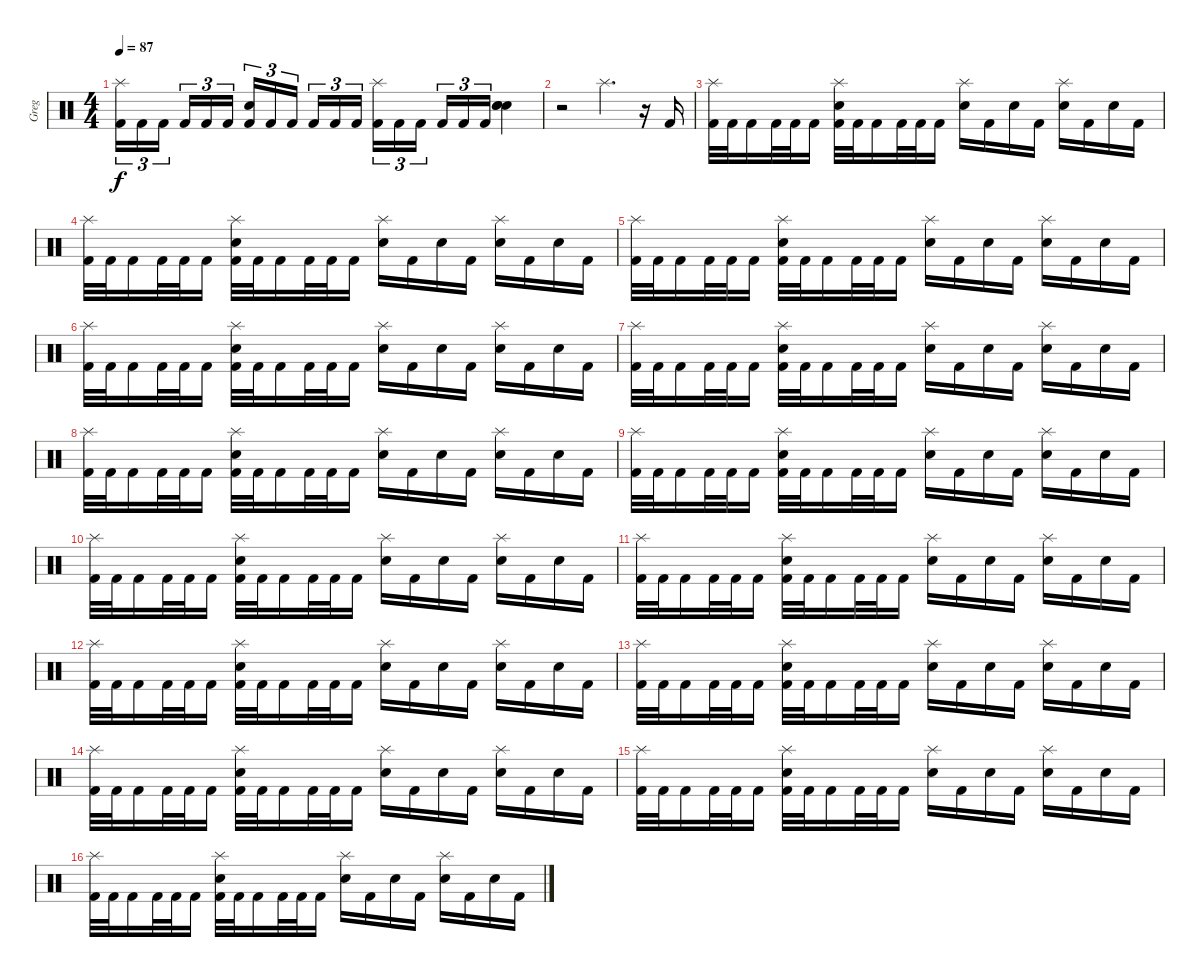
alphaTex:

\track ("Greg" "Greg") {instrument percussion}
\staff {score}
\articulation defaults
\ts (4 4)
\tempo 87
\clef neutral
\ks c
("Splash (hit)" "Kick (hit) 2").16{tu (3 2) dy f} "Kick (hit) 2".16{tu (3 2)} "Kick (hit) 2".16{tu (3 2) beam splitsecondary} "Kick (hit) 2".16{tu (3 2)} "Kick (hit) 2".16{tu (3 2)} "Kick (hit) 2".16{tu (3 2)} ("Snare (hit) 2" "Kick (hit) 2").16{tu (3 2)} "Kick (hit) 2".16{tu (3 2)} "Kick (hit) 2".16{tu (3 2) beam splitsecondary} "Kick (hit) 2".16{tu (3 2)} "Kick (hit) 2".16{tu (3 2)} "Kick (hit) 2".16{tu (3 2)} ("Splash (hit)" "Kick (hit) 2").16{tu (3 2)} "Kick (hit) 2".16{tu (3 2)} "Kick (hit) 2".16{tu (3 2) beam splitsecondary} "Kick (hit) 2".16{tu (3 2)} "Kick (hit) 2".16{tu (3 2)} "Kick (hit) 2".16{tu (3 2)} ("Snare (hit) 2" "Electric Snare (hit)" "Snare (hit) 2").4 |
r.2 "Splash (hit)".4{d} r.16 "Kick (hit) 2".16 |
("Splash (hit)" "Kick (hit) 2").32 "Kick (hit) 2".32 "Kick (hit) 2".16 "Kick (hit) 2".32 "Kick (hit) 2".32 "Kick (hit) 2".16 ("Splash (hit)" "Snare (hit) 2" "Kick (hit) 2").32 "Kick (hit) 2".32 "Kick (hit) 2".16 "Kick (hit) 2".32 "Kick (hit) 2".32 "Kick (hit) 2".16 ("Splash (hit)" "Snare (hit) 2").16 "Kick (hit) 2".16 "Snare (hit) 2".16 "Kick (hit) 2".16 ("Splash (hit)" "Snare (hit) 2").16 "Kick (hit) 2".16 "Snare (hit) 2".16 "Kick (hit) 2".16 |
("Splash (hit)" "Kick (hit) 2").32 "Kick (hit) 2".32 "Kick (hit) 2".16 "Kick (hit) 2".32 "Kick (hit) 2".32 "Kick (hit) 2".16 ("Splash (hit)" "Snare (hit) 2" "Kick (hit) 2").32 "Kick (hit) 2".32 "Kick (hit) 2".16 "Kick (hit) 2".32 "Kick (hit) 2".32 "Kick (hit) 2".16 ("Splash (hit)" "Snare (hit) 2").16 "Kick (hit) 2".16 "Snare (hit) 2".16 "Kick (hit) 2".16 ("Splash (hit)" "Snare (hit) 2").16 "Kick (hit) 2".16 "Snare (hit) 2".16 "Kick (hit) 2".16 |
("Splash (hit)" "Kick (hit) 2").32 "Kick (hit) 2".32 "Kick (hit) 2".16 "Kick (hit) 2".32 "Kick (hit) 2".32 "Kick (hit) 2".16 ("Splash (hit)" "Snare (hit) 2" "Kick (hit) 2").32 "Kick (hit) 2".32 "Kick (hit) 2".16 "Kick (hit) 2".32 "Kick (hit) 2".32 "Kick (hit) 2".16 ("Splash (hit)" "Snare (hit) 2").16 "Kick (hit) 2".16 "Snare (hit) 2".16 "Kick (hit) 2".16 ("Splash (hit)" "Snare (hit) 2").16 "Kick (hit) 2".16 "Snare (hit) 2".16 "Kick (hit) 2".16 |
("Splash (hit)" "Kick (hit) 2").32 "Kick (hit) 2".32 "Kick (hit) 2".16 "Kick (hit) 2".32 "Kick (hit) 2".32 "Kick (hit) 2".16 ("Splash (hit)" "Snare (hit) 2" "Kick (hit) 2").32 "Kick (hit) 2".32 "Kick (hit) 2".16 "Kick (hit) 2".32 "Kick (hit) 2".32 "Kick (hit) 2".16 ("Splash (hit)" "Snare (hit) 2").16 "Kick (hit) 2".16 "Snare (hit) 2".16 "Kick (hit) 2".16 ("Splash (hit)" "Snare (hit) 2").16 "Kick (hit) 2".16 "Snare (hit) 2".16 "Kick (hit) 2".16 |
("Splash (hit)" "Kick (hit) 2").32 "Kick (hit) 2".32 "Kick (hit) 2".16 "Kick (hit) 2".32 "Kick (hit) 2".32 "Kick (hit) 2".16 ("Splash (hit)" "Snare (hit) 2" "Kick (hit) 2").32 "Kick (hit) 2".32 "Kick (hit) 2".16 "Kick (hit) 2".32 "Kick (hit) 2".32 "Kick (hit) 2".16 ("Splash (hit)" "Snare (hit) 2").16 "Kick (hit) 2".16 "Snare (hit) 2".16 "Kick (hit) 2".16 ("Splash (hit)" "Snare (hit) 2").16 "Kick (hit) 2".16 "Snare (hit) 2".16 "Kick (hit) 2".16 |
("Splash (hit)" "Kick (hit) 2").32 "Kick (hit) 2".32 "Kick (hit) 2".16 "Kick (hit) 2".32 "Kick (hit) 2".32 "Kick (hit) 2".16 ("Splash (hit)" "Snare (hit) 2" "Kick (hit) 2").32 "Kick (hit) 2".32 "Kick (hit) 2".16 "Kick (hit) 2".32 "Kick (hit) 2".32 "Kick (hit) 2".16 ("Splash (hit)" "Snare (hit) 2").16 "Kick (hit) 2".16 "Snare (hit) 2".16 "Kick (hit) 2".16 ("Splash (hit)" "Snare (hit) 2").16 "Kick (hit) 2".16 "Snare (hit) 2".16 "Kick (hit) 2".16 |
("Splash (hit)" "Kick (hit) 2").32 "Kick (hit) 2".32 "Kick (hit) 2".16 "Kick (hit) 2".32 "Kick (hit) 2".32 "Kick (hit) 2".16 ("Splash (hit)" "Snare (hit) 2" "Kick (hit) 2").32 "Kick (hit) 2".32 "Kick (hit) 2".16 "Kick (hit) 2".32 "Kick (hit) 2".32 "Kick (hit) 2".16 ("Splash (hit)" "Snare (hit) 2").16 "Kick (hit) 2".16 "Snare (hit) 2".16 "Kick (hit) 2".16 ("Splash (hit)" "Snare (hit) 2").16 "Kick (hit) 2".16 "Snare (hit) 2".16 "Kick (hit) 2".16 |
("Splash (hit)" "Kick (hit) 2").32 "Kick (hit) 2".32 "Kick (hit) 2".16 "Kick (hit) 2".32 "Kick (hit) 2".32 "Kick (hit) 2".16 ("Splash (hit)" "Snare (hit) 2" "Kick (hit) 2").32 "Kick (hit) 2".32 "Kick (hit) 2".16 "Kick (hit) 2".32 "Kick (hit) 2".32 "Kick (hit) 2".16 ("Splash (hit)" "Snare (hit) 2").16 "Kick (hit) 2".16 "Snare (hit) 2".16 "Kick (hit) 2".16 ("Splash (hit)" "Snare (hit) 2").16 "Kick (hit) 2".16 "Snare (hit) 2".16 "Kick (hit) 2".16 |
("Splash (hit)" "Kick (hit) 2").32 "Kick (hit) 2".32 "Kick (hit) 2".16 "Kick (hit) 2".32 "Kick (hit) 2".32 "Kick (hit) 2".16 ("Splash (hit)" "Snare (hit) 2" "Kick (hit) 2").32 "Kick (hit) 2".32 "Kick (hit) 2".16 "Kick (hit) 2".32 "Kick (hit) 2".32 "Kick (hit) 2".16 ("Splash (hit)" "Snare (hit) 2").16 "Kick (hit) 2".16 "Snare (hit) 2".16 "Kick (hit) 2".16 ("Splash (hit)" "Snare (hit) 2").16 "Kick (hit) 2".16 "Snare (hit) 2".16 "Kick (hit) 2".16 |
("Splash (hit)" "Kick (hit) 2").32 "Kick (hit) 2".32 "Kick (hit) 2".16 "Kick (hit) 2".32 "Kick (hit) 2".32 "Kick (hit) 2".16 ("Splash (hit)" "Snare (hit) 2" "Kick (hit) 2").32 "Kick (hit) 2".32 "Kick (hit) 2".16 "Kick (hit) 2".32 "Kick (hit) 2".32 "Kick (hit) 2".16 ("Splash (hit)" "Snare (hit) 2").16 "Kick (hit) 2".16 "Snare (hit) 2".16 "Kick (hit) 2".16 ("Splash (hit)" "Snare (hit) 2").16 "Kick (hit) 2".16 "Snare (hit) 2".16 "Kick (hit) 2".16 |
("Splash (hit)" "Kick (hit) 2").32 "Kick (hit) 2".32 "Kick (hit) 2".16 "Kick (hit) 2".32 "Kick (hit) 2".32 "Kick (hit) 2".16 ("Splash (hit)" "Snare (hit) 2" "Kick (hit) 2").32 "Kick (hit) 2".32 "Kick (hit) 2".16 "Kick (hit) 2".32 "Kick (hit) 2".32 "Kick (hit) 2".16 ("Splash (hit)" "Snare (hit) 2").16 "Kick (hit) 2".16 "Snare (hit) 2".16 "Kick (hit) 2".16 ("Splash (hit)" "Snare (hit) 2").16 "Kick (hit) 2".16 "Snare (hit) 2".16 "Kick (hit) 2".16 |
("Splash (hit)" "Kick (hit) 2").32 "Kick (hit) 2".32 "Kick (hit) 2".16 "Kick (hit) 2".32 "Kick (hit) 2".32 "Kick (hit) 2".16 ("Splash (hit)" "Snare (hit) 2" "Kick (hit) 2").32 "Kick (hit) 2".32 "Kick (hit) 2".16 "Kick (hit) 2".32 "Kick (hit) 2".32 "Kick (hit) 2".16 ("Splash (hit)" "Snare (hit) 2").16 "Kick (hit) 2".16 "Snare (hit) 2".16 "Kick (hit) 2".16 ("Splash (hit)" "Snare (hit) 2").16 "Kick (hit) 2".16 "Snare (hit) 2".16 "Kick (hit) 2".16 |
("Splash (hit)" "Kick (hit) 2").32 "Kick (hit) 2".32 "Kick (hit) 2".16 "Kick (hit) 2".32 "Kick (hit) 2".32 "Kick (hit) 2".16 ("Splash (hit)" "Snare (hit) 2" "Kick (hit) 2").32 "Kick (hit) 2".32 "Kick (hit) 2".16 "Kick (hit) 2".32 "Kick (hit) 2".32 "Kick (hit) 2".16 ("Splash (hit)" "Snare (hit) 2").16 "Kick (hit) 2".16 "Snare (hit) 2".16 "Kick (hit) 2".16 ("Splash (hit)" "Snare (hit) 2").16 "Kick (hit) 2".16 "Snare (hit) 2".16 "Kick (hit) 2".16 |
("Splash (hit)" "Kick (hit) 2").32 "Kick (hit) 2".32 "Kick (hit) 2".16 "Kick (hit) 2".32 "Kick (hit) 2".32 "Kick (hit) 2".16 ("Splash (hit)" "Snare (hit) 2" "Kick (hit) 2").32 "Kick (hit) 2".32 "Kick (hit) 2".16 "Kick (hit) 2".32 "Kick (hit) 2".32 "Kick (hit) 2".16 ("Splash (hit)" "Snare (hit) 2").16 "Kick (hit) 2".16 "Snare (hit) 2".16 "Kick (hit) 2".16 ("Splash (hit)" "Snare (hit) 2").16 "Kick (hit) 2".16 "Snare (hit) 2".16 "Kick (hit) 2".16
